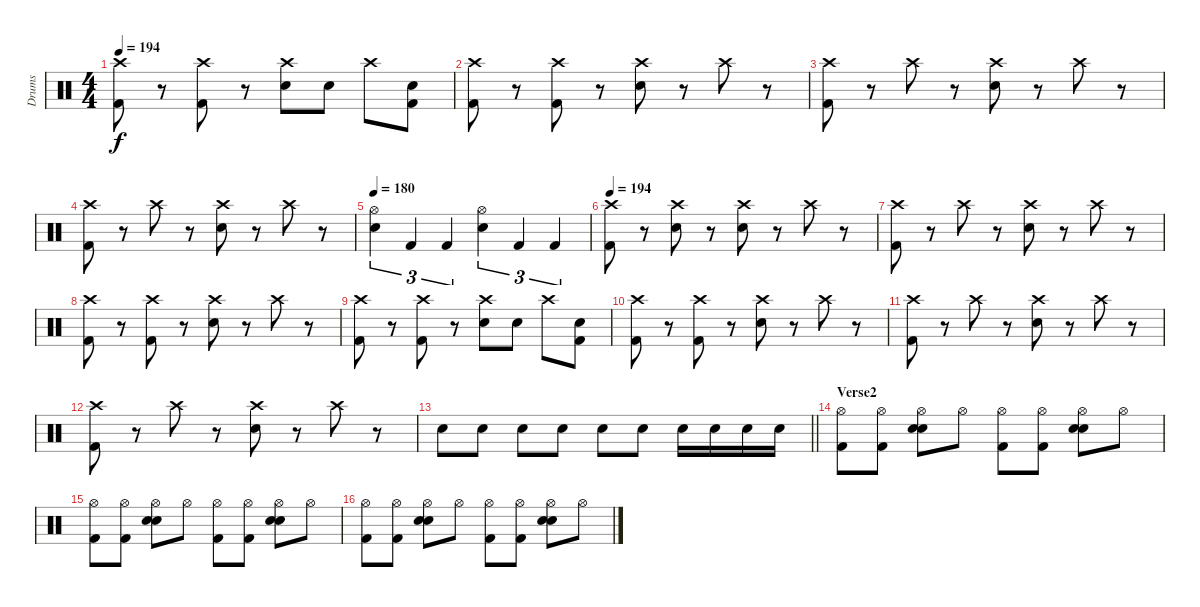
\track ("Drums" "Drums") {solo instrument percussion}
\staff {score}
\articulation defaults
\ts (4 4)
\tempo 194
\clef neutral
\ks c
("Crash high (hit)" "Kick (hit) 2").8{dy f} r.8 ("Crash high (hit)" "Kick (hit) 2").8 r.8 ("Crash high (hit)" "Snare (hit) 2").8 "Snare (hit) 2".8 "Crash high (hit)".8 ("Snare (hit) 2" "Kick (hit) 2").8 |
("Crash high (hit)" "Kick (hit) 2").8 r.8 ("Crash high (hit)" "Kick (hit) 2").8 r.8 ("Crash high (hit)" "Snare (hit) 2").8 r.8 "Crash high (hit)".8 r.8 |
("Crash high (hit)" "Kick (hit) 2").8 r.8 "Crash high (hit)".8 r.8 ("Crash high (hit)" "Snare (hit) 2").8 r.8 "Crash high (hit)".8 r.8 |
("Crash high (hit)" "Kick (hit) 2").8 r.8 "Crash high (hit)".8 r.8 ("Crash high (hit)" "Snare (hit) 2").8 r.8 "Crash high (hit)".8 r.8 |
\tempo 180
("Hi-Hat (open)" "Snare (hit) 2").4{tu (3 2)} "Kick (hit) 2".4{tu (3 2)} "Kick (hit) 2".4{tu (3 2)} ("Hi-Hat (open)" "Snare (hit) 2").4{tu (3 2)} "Kick (hit) 2".4{tu (3 2)} "Kick (hit) 2".4{tu (3 2)} |
\tempo 194
("Crash high (hit)" "Kick (hit) 2").8 r.8 ("Crash high (hit)" "Snare (hit) 2").8 r.8 ("Crash high (hit)" "Snare (hit) 2").8 r.8 "Crash high (hit)".8 r.8 |
("Crash high (hit)" "Kick (hit) 2").8 r.8 "Crash high (hit)".8 r.8 ("Crash high (hit)" "Snare (hit) 2").8 r.8 "Crash high (hit)".8 r.8 |
("Crash high (hit)" "Kick (hit) 2").8 r.8 ("Crash high (hit)" "Kick (hit) 2").8 r.8 ("Crash high (hit)" "Snare (hit) 2").8 r.8 "Crash high (hit)".8 r.8 |
("Crash high (hit)" "Kick (hit) 2").8 r.8 ("Crash high (hit)" "Kick (hit) 2").8 r.8 ("Crash high (hit)" "Snare (hit) 2").8 "Snare (hit) 2".8 "Crash high (hit)".8 ("Snare (hit) 2" "Kick (hit) 2").8 |
("Crash high (hit)" "Kick (hit) 2").8 r.8 ("Crash high (hit)" "Kick (hit) 2").8 r.8 ("Crash high (hit)" "Snare (hit) 2").8 r.8 "Crash high (hit)".8 r.8 |
("Crash high (hit)" "Kick (hit) 2").8 r.8 "Crash high (hit)".8 r.8 ("Crash high (hit)" "Snare (hit) 2").8 r.8 "Crash high (hit)".8 r.8 |
("Crash high (hit)" "Kick (hit) 2").8 r.8 "Crash high (hit)".8 r.8 ("Crash high (hit)" "Snare (hit) 2").8 r.8 "Crash high (hit)".8 r.8 |
\barLineRight lightlight "Snare (hit) 2".8 "Snare (hit) 2".8 "Snare (hit) 2".8 "Snare (hit) 2".8 "Snare (hit) 2".8 "Snare (hit) 2".8 "Snare (hit) 2".16 "Snare (hit) 2".16 "Snare (hit) 2".16 "Snare (hit) 2".16
|
\section ("" "Verse2")
("Hi-Hat (open)" "Kick (hit) 2").8 ("Hi-Hat (open)" "Kick (hit) 2").8 ("Hi-Hat (open)" "Electric Snare (hit)" "Snare (hit) 2").8 "Hi-Hat (open)".8 ("Hi-Hat (open)" "Kick (hit) 2").8 ("Hi-Hat (open)" "Kick (hit) 2").8 ("Hi-Hat (open)" "Electric Snare (hit)" "Snare (hit) 2").8 "Hi-Hat (open)".8 |
("Hi-Hat (open)" "Kick (hit) 2").8 ("Hi-Hat (open)" "Kick (hit) 2").8 ("Hi-Hat (open)" "Electric Snare (hit)" "Snare (hit) 2").8 "Hi-Hat (open)".8 ("Hi-Hat (open)" "Kick (hit) 2").8 ("Hi-Hat (open)" "Kick (hit) 2").8 ("Hi-Hat (open)" "Electric Snare (hit)" "Snare (hit) 2").8 "Hi-Hat (open)".8 |
("Hi-Hat (open)" "Kick (hit) 2").8 ("Hi-Hat (open)" "Kick (hit) 2").8 ("Hi-Hat (open)" "Electric Snare (hit)" "Snare (hit) 2").8 "Hi-Hat (open)".8 ("Hi-Hat (open)" "Kick (hit) 2").8 ("Hi-Hat (open)" "Kick (hit) 2").8 ("Hi-Hat (open)" "Electric Snare (hit)" "Snare (hit) 2").8 "Hi-Hat (open)".8
